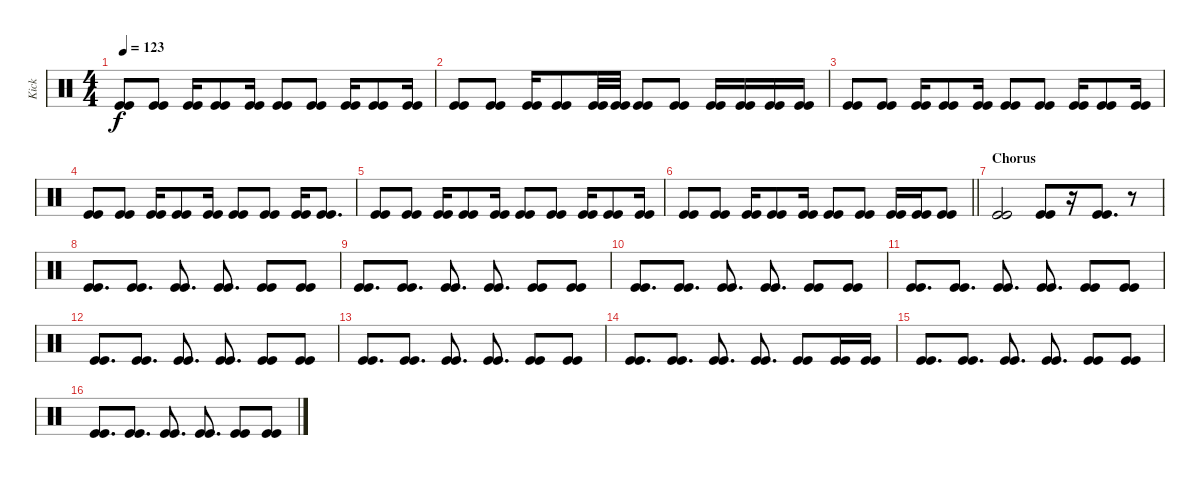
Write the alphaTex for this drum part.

\track ("Kick" "Kick") {instrument percussion}
\staff {score}
\articulation defaults
\ts (4 4)
\tempo 123
\clef neutral
\ks c
("Kick (hit)" "Kick (hit)").8{dy f} ("Kick (hit)" "Kick (hit)").8 ("Kick (hit)" "Kick (hit)").16 ("Kick (hit)" "Kick (hit)").8 ("Kick (hit)" "Kick (hit)").16 ("Kick (hit)" "Kick (hit)").8 ("Kick (hit)" "Kick (hit)").8 ("Kick (hit)" "Kick (hit)").16 ("Kick (hit)" "Kick (hit)").8 ("Kick (hit)" "Kick (hit)").16 |
("Kick (hit)" "Kick (hit)").8 ("Kick (hit)" "Kick (hit)").8 ("Kick (hit)" "Kick (hit)").16 ("Kick (hit)" "Kick (hit)").8 ("Kick (hit)" "Kick (hit)").32 ("Kick (hit)" "Kick (hit)").32 ("Kick (hit)" "Kick (hit)").8 ("Kick (hit)" "Kick (hit)").8 ("Kick (hit)" "Kick (hit)").16 ("Kick (hit)" "Kick (hit)").16 ("Kick (hit)" "Kick (hit)").16 ("Kick (hit)" "Kick (hit)").16 |
("Kick (hit)" "Kick (hit)").8 ("Kick (hit)" "Kick (hit)").8 ("Kick (hit)" "Kick (hit)").16 ("Kick (hit)" "Kick (hit)").8 ("Kick (hit)" "Kick (hit)").16 ("Kick (hit)" "Kick (hit)").8 ("Kick (hit)" "Kick (hit)").8 ("Kick (hit)" "Kick (hit)").16 ("Kick (hit)" "Kick (hit)").8 ("Kick (hit)" "Kick (hit)").16 |
("Kick (hit)" "Kick (hit)").8 ("Kick (hit)" "Kick (hit)").8 ("Kick (hit)" "Kick (hit)").16 ("Kick (hit)" "Kick (hit)").8 ("Kick (hit)" "Kick (hit)").16 ("Kick (hit)" "Kick (hit)").8 ("Kick (hit)" "Kick (hit)").8 ("Kick (hit)" "Kick (hit)").16 ("Kick (hit)" "Kick (hit)").8{d} |
("Kick (hit)" "Kick (hit)").8 ("Kick (hit)" "Kick (hit)").8 ("Kick (hit)" "Kick (hit)").16 ("Kick (hit)" "Kick (hit)").8 ("Kick (hit)" "Kick (hit)").16 ("Kick (hit)" "Kick (hit)").8 ("Kick (hit)" "Kick (hit)").8 ("Kick (hit)" "Kick (hit)").16 ("Kick (hit)" "Kick (hit)").8 ("Kick (hit)" "Kick (hit)").16 |
\barLineRight lightlight
("Kick (hit)" "Kick (hit)").8 ("Kick (hit)" "Kick (hit)").8 ("Kick (hit)" "Kick (hit)").16 ("Kick (hit)" "Kick (hit)").8 ("Kick (hit)" "Kick (hit)").16 ("Kick (hit)" "Kick (hit)").8 ("Kick (hit)" "Kick (hit)").8 ("Kick (hit)" "Kick (hit)").16 ("Kick (hit)" "Kick (hit)").16 ("Kick (hit)" "Kick (hit)").8 |
\section ("" "Chorus")
("Kick (hit)" "Kick (hit)").2 ("Kick (hit)" "Kick (hit)").8 r.16 ("Kick (hit)" "Kick (hit)").8{d} r.8 |
("Kick (hit)" "Kick (hit)").8{d} ("Kick (hit)" "Kick (hit)").8{d} ("Kick (hit)" "Kick (hit)").8{d} ("Kick (hit)" "Kick (hit)").8{d} ("Kick (hit)" "Kick (hit)").8 ("Kick (hit)" "Kick (hit)").8 |
("Kick (hit)" "Kick (hit)").8{d} ("Kick (hit)" "Kick (hit)").8{d} ("Kick (hit)" "Kick (hit)").8{d} ("Kick (hit)" "Kick (hit)").8{d} ("Kick (hit)" "Kick (hit)").8 ("Kick (hit)" "Kick (hit)").8 |
("Kick (hit)" "Kick (hit)").8{d} ("Kick (hit)" "Kick (hit)").8{d} ("Kick (hit)" "Kick (hit)").8{d} ("Kick (hit)" "Kick (hit)").8{d} ("Kick (hit)" "Kick (hit)").8 ("Kick (hit)" "Kick (hit)").8 |
("Kick (hit)" "Kick (hit)").8{d} ("Kick (hit)" "Kick (hit)").8{d} ("Kick (hit)" "Kick (hit)").8{d} ("Kick (hit)" "Kick (hit)").8{d} ("Kick (hit)" "Kick (hit)").8 ("Kick (hit)" "Kick (hit)").8 |
("Kick (hit)" "Kick (hit)").8{d} ("Kick (hit)" "Kick (hit)").8{d} ("Kick (hit)" "Kick (hit)").8{d} ("Kick (hit)" "Kick (hit)").8{d} ("Kick (hit)" "Kick (hit)").8 ("Kick (hit)" "Kick (hit)").8 |
("Kick (hit)" "Kick (hit)").8{d} ("Kick (hit)" "Kick (hit)").8{d} ("Kick (hit)" "Kick (hit)").8{d} ("Kick (hit)" "Kick (hit)").8{d} ("Kick (hit)" "Kick (hit)").8 ("Kick (hit)" "Kick (hit)").8 |
("Kick (hit)" "Kick (hit)").8{d} ("Kick (hit)" "Kick (hit)").8{d} ("Kick (hit)" "Kick (hit)").8{d} ("Kick (hit)" "Kick (hit)").8{d} ("Kick (hit)" "Kick (hit)").8 ("Kick (hit)" "Kick (hit)").16 ("Kick (hit)" "Kick (hit)").16 |
("Kick (hit)" "Kick (hit)").8{d} ("Kick (hit)" "Kick (hit)").8{d} ("Kick (hit)" "Kick (hit)").8{d} ("Kick (hit)" "Kick (hit)").8{d} ("Kick (hit)" "Kick (hit)").8 ("Kick (hit)" "Kick (hit)").8 |
("Kick (hit)" "Kick (hit)").8{d} ("Kick (hit)" "Kick (hit)").8{d} ("Kick (hit)" "Kick (hit)").8{d} ("Kick (hit)" "Kick (hit)").8{d} ("Kick (hit)" "Kick (hit)").8 ("Kick (hit)" "Kick (hit)").8
